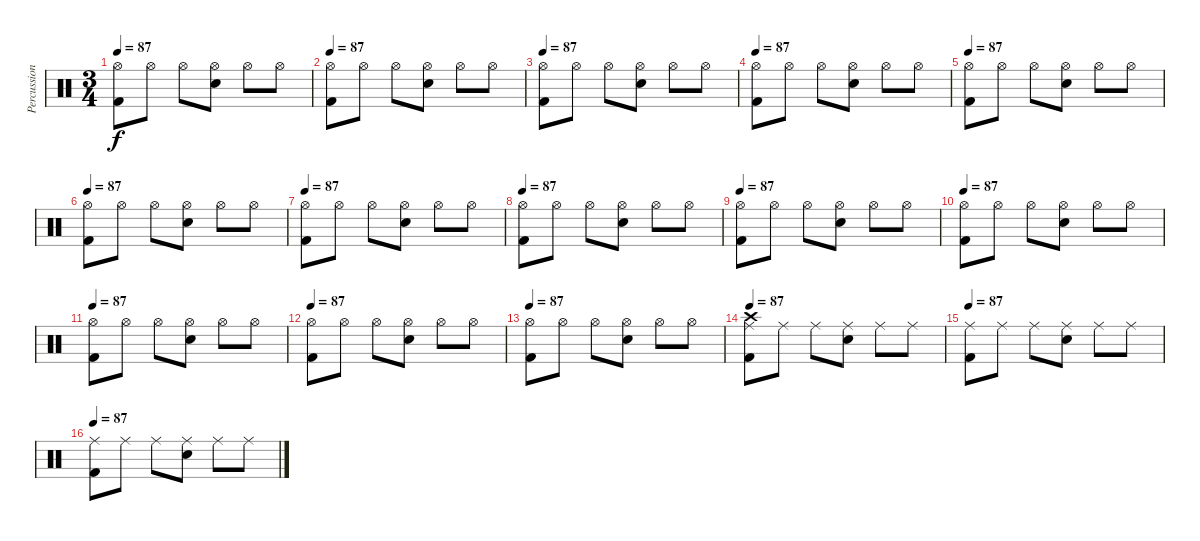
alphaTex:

\track ("Percussions" "Percussion") {instrument percussion}
\staff {score}
\articulation defaults
\ts (3 4)
\tempo 87
\clef neutral
\ks c
("Hi-Hat (open)" "Kick (hit) 2").8{dy f} "Hi-Hat (open)".8 "Hi-Hat (open)".8 ("Hi-Hat (open)" "Snare (hit) 2").8 "Hi-Hat (open)".8 "Hi-Hat (open)".8 |
\tempo 87
("Hi-Hat (open)" "Kick (hit) 2").8 "Hi-Hat (open)".8 "Hi-Hat (open)".8 ("Hi-Hat (open)" "Snare (hit) 2").8 "Hi-Hat (open)".8 "Hi-Hat (open)".8 |
\tempo 87
("Hi-Hat (open)" "Kick (hit) 2").8 "Hi-Hat (open)".8 "Hi-Hat (open)".8 ("Hi-Hat (open)" "Snare (hit) 2").8 "Hi-Hat (open)".8 "Hi-Hat (open)".8 |
\tempo 87
("Hi-Hat (open)" "Kick (hit) 2").8 "Hi-Hat (open)".8 "Hi-Hat (open)".8 ("Hi-Hat (open)" "Snare (hit) 2").8 "Hi-Hat (open)".8 "Hi-Hat (open)".8 |
\tempo 87
("Hi-Hat (open)" "Kick (hit) 2").8 "Hi-Hat (open)".8 "Hi-Hat (open)".8 ("Hi-Hat (open)" "Snare (hit) 2").8 "Hi-Hat (open)".8 "Hi-Hat (open)".8 |
\tempo 87
("Hi-Hat (open)" "Kick (hit) 2").8 "Hi-Hat (open)".8 "Hi-Hat (open)".8 ("Hi-Hat (open)" "Snare (hit) 2").8 "Hi-Hat (open)".8 "Hi-Hat (open)".8 |
\tempo 87
("Hi-Hat (open)" "Kick (hit) 2").8 "Hi-Hat (open)".8 "Hi-Hat (open)".8 ("Hi-Hat (open)" "Snare (hit) 2").8 "Hi-Hat (open)".8 "Hi-Hat (open)".8 |
\tempo 87
("Hi-Hat (open)" "Kick (hit) 2").8 "Hi-Hat (open)".8 "Hi-Hat (open)".8 ("Hi-Hat (open)" "Snare (hit) 2").8 "Hi-Hat (open)".8 "Hi-Hat (open)".8 |
\tempo 87
("Hi-Hat (open)" "Kick (hit) 2").8 "Hi-Hat (open)".8 "Hi-Hat (open)".8 ("Hi-Hat (open)" "Snare (hit) 2").8 "Hi-Hat (open)".8 "Hi-Hat (open)".8 |
\tempo 87
("Hi-Hat (open)" "Kick (hit) 2").8 "Hi-Hat (open)".8 "Hi-Hat (open)".8 ("Hi-Hat (open)" "Snare (hit) 2").8 "Hi-Hat (open)".8 "Hi-Hat (open)".8 |
\tempo 87
("Hi-Hat (open)" "Kick (hit) 2").8 "Hi-Hat (open)".8 "Hi-Hat (open)".8 ("Hi-Hat (open)" "Snare (hit) 2").8 "Hi-Hat (open)".8 "Hi-Hat (open)".8 |
\tempo 87
("Hi-Hat (open)" "Kick (hit) 2").8 "Hi-Hat (open)".8 "Hi-Hat (open)".8 ("Hi-Hat (open)" "Snare (hit) 2").8 "Hi-Hat (open)".8 "Hi-Hat (open)".8 |
\tempo 87
("Hi-Hat (open)" "Kick (hit) 2").8 "Hi-Hat (open)".8 "Hi-Hat (open)".8 ("Hi-Hat (open)" "Snare (hit) 2").8 "Hi-Hat (open)".8 "Hi-Hat (open)".8 |
\tempo 87
("Crash high (hit)" "Ride (middle)" "Kick (hit) 2").8 "Ride (middle)".8 "Ride (middle)".8 ("Ride (middle)" "Snare (hit) 2").8 "Ride (middle)".8 "Ride (middle)".8 |
\tempo 87
("Ride (middle)" "Kick (hit) 2").8 "Ride (middle)".8 "Ride (middle)".8 ("Ride (middle)" "Snare (hit) 2").8 "Ride (middle)".8 "Ride (middle)".8 |
\tempo 87
("Ride (middle)" "Kick (hit) 2").8 "Ride (middle)".8 "Ride (middle)".8 ("Ride (middle)" "Snare (hit) 2").8 "Ride (middle)".8 "Ride (middle)".8
